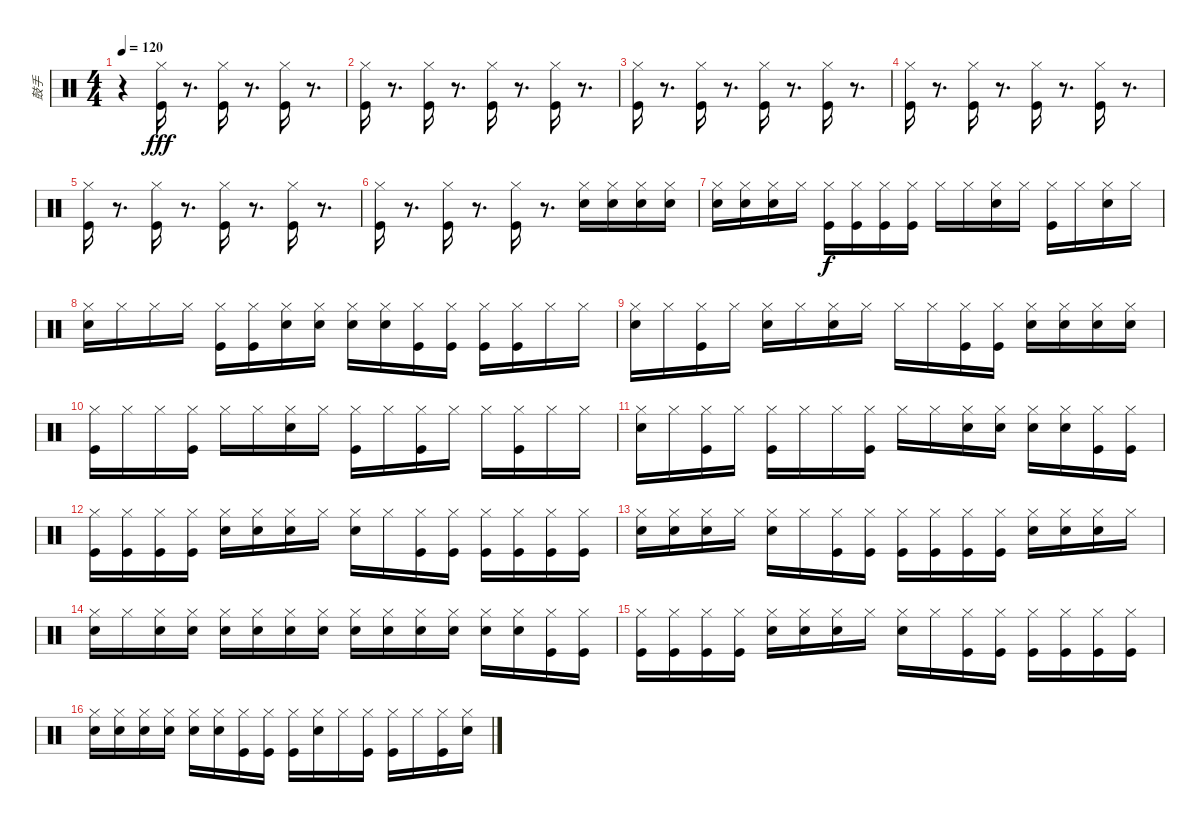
\track ("鼓手" "鼓手") {instrument percussion}
\staff {score}
\articulation defaults
\ts (4 4)
\tempo 120
\clef neutral
\ks c
r.4{dy fff} ("Kick (hit)" "Hi-Hat (closed)").16 r.8{d} ("Kick (hit)" "Hi-Hat (closed)").16 r.8{d} ("Kick (hit)" "Hi-Hat (closed)").16 r.8{d} |
("Kick (hit)" "Hi-Hat (closed)").16 r.8{d} ("Kick (hit)" "Hi-Hat (closed)").16 r.8{d} ("Kick (hit)" "Hi-Hat (closed)").16 r.8{d} ("Kick (hit)" "Hi-Hat (closed)").16 r.8{d} |
("Kick (hit)" "Hi-Hat (closed)").16 r.8{d} ("Kick (hit)" "Hi-Hat (closed)").16 r.8{d} ("Kick (hit)" "Hi-Hat (closed)").16 r.8{d} ("Kick (hit)" "Hi-Hat (closed)").16 r.8{d} |
("Kick (hit)" "Hi-Hat (closed)").16 r.8{d} ("Kick (hit)" "Hi-Hat (closed)").16 r.8{d} ("Kick (hit)" "Hi-Hat (closed)").16 r.8{d} ("Kick (hit)" "Hi-Hat (closed)").16 r.8{d} |
("Kick (hit)" "Hi-Hat (closed)").16 r.8{d} ("Kick (hit)" "Hi-Hat (closed)").16 r.8{d} ("Kick (hit)" "Hi-Hat (closed)").16 r.8{d} ("Kick (hit)" "Hi-Hat (closed)").16 r.8{d} |
("Kick (hit)" "Hi-Hat (closed)").16 r.8{d} ("Kick (hit)" "Hi-Hat (closed)").16 r.8{d} ("Kick (hit)" "Hi-Hat (closed)").16 r.8{d} ("Hi-Hat (closed)" "Snare (hit) 2").16 ("Hi-Hat (closed)" "Snare (hit) 2").16 ("Hi-Hat (closed)" "Snare (hit) 2").16 ("Hi-Hat (closed)" "Snare (hit) 2").16 |
("Hi-Hat (closed)" "Snare (hit) 2").16 ("Hi-Hat (closed)" "Snare (hit) 2").16 ("Hi-Hat (closed)" "Snare (hit) 2").16 "Hi-Hat (closed)".16 ("Kick (hit)" "Hi-Hat (closed)").16{dy f} ("Kick (hit)" "Hi-Hat (closed)").16 ("Kick (hit)" "Hi-Hat (closed)").16 ("Kick (hit)" "Hi-Hat (closed)").16 "Hi-Hat (closed)".16 "Hi-Hat (closed)".16 ("Snare (hit) 2" "Hi-Hat (closed)").16 "Hi-Hat (closed)".16 ("Kick (hit)" "Hi-Hat (closed)").16 "Hi-Hat (closed)".16 ("Snare (hit) 2" "Hi-Hat (closed)").16 "Hi-Hat (closed)".16 |
("Snare (hit) 2" "Hi-Hat (closed)").16 "Hi-Hat (closed)".16 "Hi-Hat (closed)".16 "Hi-Hat (closed)".16 ("Kick (hit)" "Hi-Hat (closed)").16 ("Kick (hit)" "Hi-Hat (closed)").16 ("Snare (hit) 2" "Hi-Hat (closed)").16 ("Snare (hit) 2" "Hi-Hat (closed)").16 ("Snare (hit) 2" "Hi-Hat (closed)").16 ("Snare (hit) 2" "Hi-Hat (closed)").16 ("Kick (hit)" "Hi-Hat (closed)").16 ("Kick (hit)" "Hi-Hat (closed)").16 ("Kick (hit)" "Hi-Hat (closed)").16 ("Kick (hit)" "Hi-Hat (closed)").16 "Hi-Hat (closed)".16 "Hi-Hat (closed)".16 |
("Snare (hit) 2" "Hi-Hat (closed)").16 "Hi-Hat (closed)".16 ("Kick (hit)" "Hi-Hat (closed)").16 "Hi-Hat (closed)".16 ("Snare (hit) 2" "Hi-Hat (closed)").16 "Hi-Hat (closed)".16 ("Snare (hit) 2" "Hi-Hat (closed)").16 "Hi-Hat (closed)".16 "Hi-Hat (closed)".16 "Hi-Hat (closed)".16 ("Kick (hit)" "Hi-Hat (closed)").16 ("Kick (hit)" "Hi-Hat (closed)").16 ("Snare (hit) 2" "Hi-Hat (closed)").16 ("Snare (hit) 2" "Hi-Hat (closed)").16 ("Snare (hit) 2" "Hi-Hat (closed)").16 ("Snare (hit) 2" "Hi-Hat (closed)").16 |
("Hi-Hat (closed)" "Kick (hit)").16 "Hi-Hat (closed)".16 "Hi-Hat (closed)".16 ("Kick (hit)" "Hi-Hat (closed)").16 "Hi-Hat (closed)".16 "Hi-Hat (closed)".16 ("Snare (hit) 2" "Hi-Hat (closed)").16 "Hi-Hat (closed)".16 ("Kick (hit)" "Hi-Hat (closed)").16 "Hi-Hat (closed)".16 ("Hi-Hat (closed)" "Kick (hit)").16 "Hi-Hat (closed)".16 "Hi-Hat (closed)".16 ("Kick (hit)" "Hi-Hat (closed)").16 "Hi-Hat (closed)".16 "Hi-Hat (closed)".16 |
("Snare (hit) 2" "Hi-Hat (closed)").16 "Hi-Hat (closed)".16 ("Kick (hit)" "Hi-Hat (closed)").16 "Hi-Hat (closed)".16 ("Hi-Hat (closed)" "Kick (hit)").16 "Hi-Hat (closed)".16 "Hi-Hat (closed)".16 ("Kick (hit)" "Hi-Hat (closed)").16 "Hi-Hat (closed)".16 "Hi-Hat (closed)".16 ("Hi-Hat (closed)" "Snare (hit) 2").16 ("Hi-Hat (closed)" "Snare (hit) 2").16 ("Hi-Hat (closed)" "Snare (hit) 2").16 ("Hi-Hat (closed)" "Snare (hit) 2").16 ("Hi-Hat (closed)" "Kick (hit)").16 ("Kick (hit)" "Hi-Hat (closed)").16 |
("Kick (hit)" "Hi-Hat (closed)").16 ("Kick (hit)" "Hi-Hat (closed)").16 ("Kick (hit)" "Hi-Hat (closed)").16 ("Kick (hit)" "Hi-Hat (closed)").16 ("Snare (hit) 2" "Hi-Hat (closed)").16 ("Snare (hit) 2" "Hi-Hat (closed)").16 ("Snare (hit) 2" "Hi-Hat (closed)").16 "Hi-Hat (closed)".16 ("Snare (hit) 2" "Hi-Hat (closed)").16 "Hi-Hat (closed)".16 ("Hi-Hat (closed)" "Kick (hit)").16 ("Kick (hit)" "Hi-Hat (closed)").16 ("Kick (hit)" "Hi-Hat (closed)").16 ("Kick (hit)" "Hi-Hat (closed)").16 ("Kick (hit)" "Hi-Hat (closed)").16 ("Kick (hit)" "Hi-Hat (closed)").16 |
("Snare (hit) 2" "Hi-Hat (closed)").16 ("Snare (hit) 2" "Hi-Hat (closed)").16 ("Snare (hit) 2" "Hi-Hat (closed)").16 "Hi-Hat (closed)".16 ("Snare (hit) 2" "Hi-Hat (closed)").16 "Hi-Hat (closed)".16 ("Hi-Hat (closed)" "Kick (hit)").16 ("Kick (hit)" "Hi-Hat (closed)").16 ("Kick (hit)" "Hi-Hat (closed)").16 ("Kick (hit)" "Hi-Hat (closed)").16 ("Kick (hit)" "Hi-Hat (closed)").16 ("Kick (hit)" "Hi-Hat (closed)").16 ("Snare (hit) 2" "Hi-Hat (closed)").16 ("Snare (hit) 2" "Hi-Hat (closed)").16 ("Snare (hit) 2" "Hi-Hat (closed)").16 "Hi-Hat (closed)".16 |
("Snare (hit) 2" "Hi-Hat (closed)").16 "Hi-Hat (closed)".16 ("Hi-Hat (closed)" "Snare (hit) 2").16 ("Hi-Hat (closed)" "Snare (hit) 2").16 ("Hi-Hat (closed)" "Snare (hit) 2").16 ("Hi-Hat (closed)" "Snare (hit) 2").16 ("Hi-Hat (closed)" "Snare (hit) 2").16 ("Hi-Hat (closed)" "Snare (hit) 2").16 ("Hi-Hat (closed)" "Snare (hit) 2").16 ("Hi-Hat (closed)" "Snare (hit) 2").16 ("Hi-Hat (closed)" "Snare (hit) 2").16 ("Hi-Hat (closed)" "Snare (hit) 2").16 ("Hi-Hat (closed)" "Snare (hit) 2").16 ("Hi-Hat (closed)" "Snare (hit) 2").16 ("Hi-Hat (closed)" "Kick (hit)").16 ("Kick (hit)" "Hi-Hat (closed)").16 |
("Kick (hit)" "Hi-Hat (closed)").16 ("Kick (hit)" "Hi-Hat (closed)").16 ("Kick (hit)" "Hi-Hat (closed)").16 ("Kick (hit)" "Hi-Hat (closed)").16 ("Snare (hit) 2" "Hi-Hat (closed)").16 ("Snare (hit) 2" "Hi-Hat (closed)").16 ("Snare (hit) 2" "Hi-Hat (closed)").16 "Hi-Hat (closed)".16 ("Snare (hit) 2" "Hi-Hat (closed)").16 "Hi-Hat (closed)".16 ("Hi-Hat (closed)" "Kick (hit)").16 ("Kick (hit)" "Hi-Hat (closed)").16 ("Kick (hit)" "Hi-Hat (closed)").16 ("Kick (hit)" "Hi-Hat (closed)").16 ("Kick (hit)" "Hi-Hat (closed)").16 ("Kick (hit)" "Hi-Hat (closed)").16 |
("Hi-Hat (closed)" "Snare (hit) 2").16 ("Hi-Hat (closed)" "Snare (hit) 2").16 ("Hi-Hat (closed)" "Snare (hit) 2").16 ("Hi-Hat (closed)" "Snare (hit) 2").16 ("Hi-Hat (closed)" "Snare (hit) 2").16 ("Hi-Hat (closed)" "Snare (hit) 2").16 ("Hi-Hat (closed)" "Kick (hit)").16 ("Kick (hit)" "Hi-Hat (closed)").16 ("Kick (hit)" "Hi-Hat (closed)").16 ("Snare (hit) 2" "Hi-Hat (closed)").16 "Hi-Hat (closed)".16 ("Kick (hit)" "Hi-Hat (closed)").16 ("Kick (hit)" "Hi-Hat (closed)").16 "Hi-Hat (closed)".16 ("Kick (hit)" "Hi-Hat (closed)").16 ("Snare (hit) 2" "Hi-Hat (closed)").16
